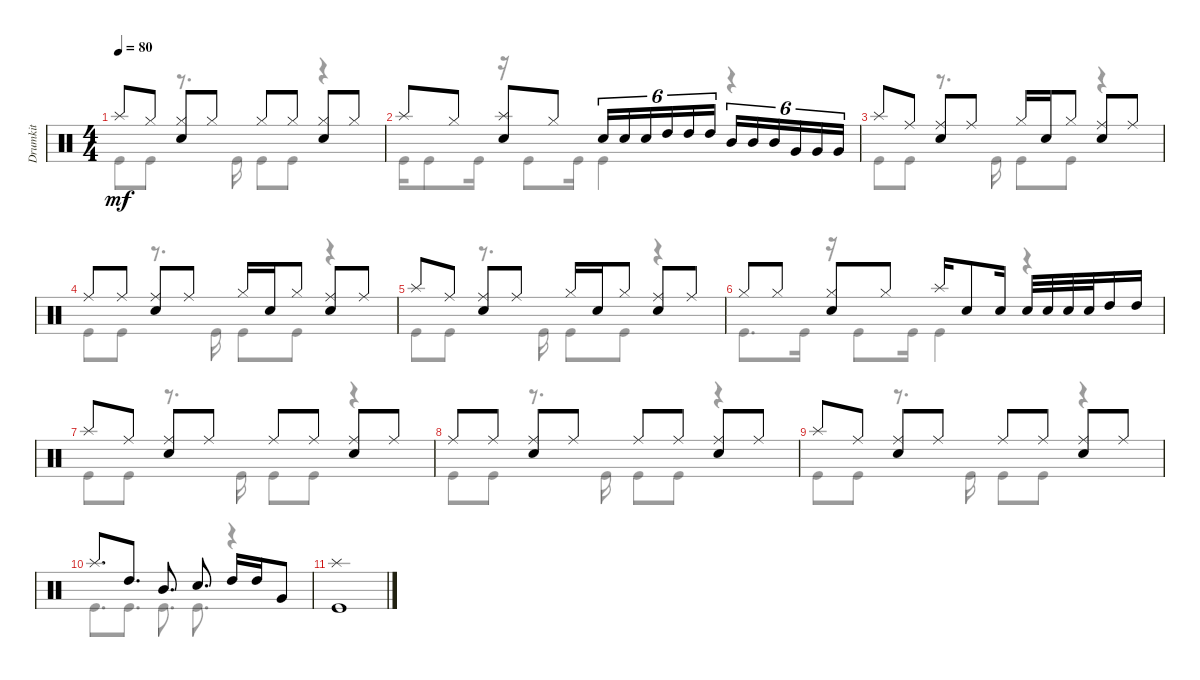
\track ("Drumkit" "Drumkit") {instrument percussion}
\staff {score}
\articulation defaults
\voice
\ts (4 4)
\tempo 80
\clef neutral
\ks c "Splash (hit)".8{dy mf} "Hi-Hat (closed)".8
("Hi-Hat (closed)" "Snare (hit) 2").8 "Hi-Hat (closed)".8 "Hi-Hat (closed)".8 "Hi-Hat (closed)".8 ("Hi-Hat (closed)" "Snare (hit) 2").8 "Hi-Hat (closed)".8 |
"Splash (hit)".8 "Hi-Hat (closed)".8 ("Snare (hit) 2" "Splash (hit)").8 "Hi-Hat (closed)".8 "Snare (hit) 2".16{tu (6 4)} "Snare (hit) 2".16{tu (6 4)} "Snare (hit) 2".16{tu (6 4)} "High Tom (hit)".16{tu (6 4)} "High Tom (hit)".16{tu (6 4)} "High Tom (hit)".16{tu (6 4)} "Mid Tom (hit)".16{tu (6 4)} "Mid Tom (hit)".16{tu (6 4)} "Mid Tom (hit)".16{tu (6 4)} "Very Low Tom (hit)".16{tu (6 4)} "Very Low Tom (hit)".16{tu (6 4)} "Very Low Tom (hit)".16{tu (6 4)} |
"Splash (hit)".8 "Ride (middle)".8 ("Snare (hit) 2" "Ride (middle)").8 "Ride (middle)".8 "Hi-Hat (closed)".16 "Snare (hit) 2".16 "Hi-Hat (closed)".8 ("Snare (hit) 2" "Ride (middle)").8 "Ride (middle)".8 |
"Ride (middle)".8 "Ride (middle)".8 ("Snare (hit) 2" "Ride (middle)").8 "Ride (middle)".8 "Hi-Hat (closed)".16 "Snare (hit) 2".16 "Hi-Hat (closed)".8 ("Snare (hit) 2" "Ride (middle)").8 "Ride (middle)".8 |
"Splash (hit)".8 "Ride (middle)".8 ("Snare (hit) 2" "Ride (middle)").8 "Ride (middle)".8 "Hi-Hat (closed)".16 "Snare (hit) 2".16 "Hi-Hat (closed)".8 ("Snare (hit) 2" "Ride (middle)").8 "Ride (middle)".8 |
"Hi-Hat (closed)".8 "Hi-Hat (closed)".8 ("Hi-Hat (closed)" "Snare (hit) 2").8 "Hi-Hat (closed)".8 "Splash (hit)".16 "Snare (hit) 2".8 "Snare (hit) 2".16 "Snare (hit) 2".32 "Snare (hit) 2".32 "Snare (hit) 2".32 "Snare (hit) 2".32 "High Tom (hit)".16 "High Tom (hit)".16 |
"Splash (hit)".8 "Ride (middle)".8 ("Snare (hit) 2" "Ride (middle)").8 "Ride (middle)".8 "Ride (middle)".8 "Ride (middle)".8 ("Snare (hit) 2" "Ride (middle)").8 "Ride (middle)".8 |
"Ride (middle)".8 "Ride (middle)".8 ("Snare (hit) 2" "Ride (middle)").8 "Ride (middle)".8 "Ride (middle)".8 "Ride (middle)".8 ("Snare (hit) 2" "Ride (middle)").8 "Ride (middle)".8 |
"Splash (hit)".8 "Ride (middle)".8 ("Snare (hit) 2" "Ride (middle)").8 "Ride (middle)".8 "Ride (middle)".8 "Ride (middle)".8 ("Snare (hit) 2" "Ride (middle)").8 "Ride (middle)".8 |
"Splash (hit)".8{d} "High Tom (hit)".8{d} "Mid Tom (hit)".8{d} "Snare (hit) 2".8{d} "High Tom (hit)".16 "High Tom (hit)".16 "Very Low Tom (hit)".8 |
("Kick (hit)" "Splash (hit)").1
\voice
\clef neutral
\ottava regular
\simile none
\ks c "Kick (hit)".8{dy mf} "Kick (hit)".8
r.8{d} "Kick (hit)".16 "Kick (hit)".8 "Kick (hit)".8 r.4 |
"Kick (hit)".16 "Kick (hit)".8 "Kick (hit)".16 r.16 "Kick (hit)".8 "Kick (hit)".16 "Kick (hit)".4 r.4 |
"Kick (hit)".8 "Kick (hit)".8 r.8{d} "Kick (hit)".16 "Kick (hit)".8 "Kick (hit)".8 r.4 |
"Kick (hit)".8 "Kick (hit)".8 r.8{d} "Kick (hit)".16 "Kick (hit)".8 "Kick (hit)".8 r.4 |
"Kick (hit)".8 "Kick (hit)".8 r.8{d} "Kick (hit)".16 "Kick (hit)".8 "Kick (hit)".8 r.4 |
"Kick (hit)".8{d} "Kick (hit)".16 r.16 "Kick (hit)".8 "Kick (hit)".16 "Kick (hit)".4 r.4 |
"Kick (hit)".8 "Kick (hit)".8 r.8{d} "Kick (hit)".16 "Kick (hit)".8 "Kick (hit)".8 r.4 |
"Kick (hit)".8 "Kick (hit)".8 r.8{d} "Kick (hit)".16 "Kick (hit)".8 "Kick (hit)".8 r.4 |
"Kick (hit)".8 "Kick (hit)".8 r.8{d} "Kick (hit)".16 "Kick (hit)".8 "Kick (hit)".8 r.4 |
"Kick (hit)".8{d} "Kick (hit)".8{d} "Kick (hit)".8{d} "Kick (hit)".8{d} r.4 |
